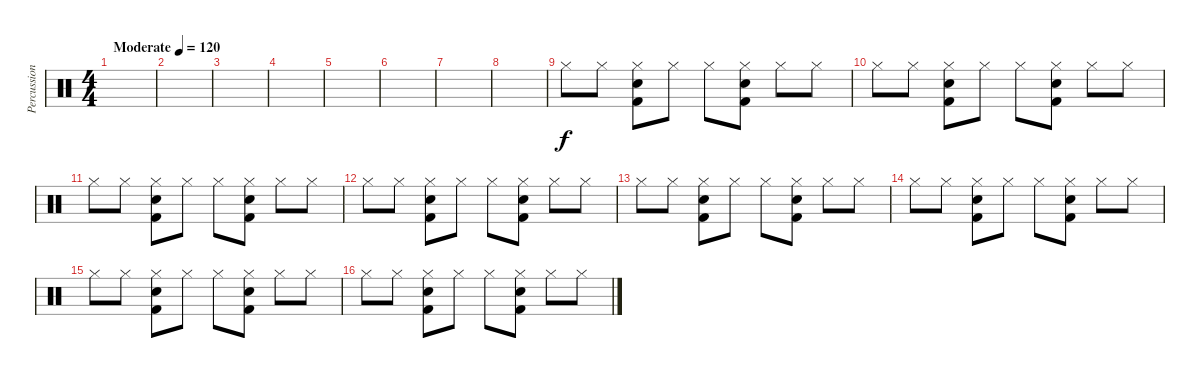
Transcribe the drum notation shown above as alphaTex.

\track ("Percussion" "Percussion") {instrument percussion}
\staff {score}
\articulation defaults
\ts (4 4)
\tempo (120 "Moderate")
\clef neutral
\ks c
|
|
|
|
|
|
|
|
"Hi-Hat (closed)".8 "Hi-Hat (closed)".8 ("Hi-Hat (closed)" "Snare (hit) 2" "Kick (hit) 2").8 "Hi-Hat (closed)".8 "Hi-Hat (closed)".8 ("Hi-Hat (closed)" "Snare (hit) 2" "Kick (hit) 2").8 "Hi-Hat (closed)".8 "Hi-Hat (closed)".8 |
"Hi-Hat (closed)".8 "Hi-Hat (closed)".8 ("Hi-Hat (closed)" "Snare (hit) 2" "Kick (hit) 2").8 "Hi-Hat (closed)".8 "Hi-Hat (closed)".8 ("Hi-Hat (closed)" "Snare (hit) 2" "Kick (hit) 2").8 "Hi-Hat (closed)".8 "Hi-Hat (closed)".8 |
"Hi-Hat (closed)".8 "Hi-Hat (closed)".8 ("Hi-Hat (closed)" "Snare (hit) 2" "Kick (hit) 2").8 "Hi-Hat (closed)".8 "Hi-Hat (closed)".8 ("Hi-Hat (closed)" "Snare (hit) 2" "Kick (hit) 2").8 "Hi-Hat (closed)".8 "Hi-Hat (closed)".8 |
"Hi-Hat (closed)".8 "Hi-Hat (closed)".8 ("Hi-Hat (closed)" "Snare (hit) 2" "Kick (hit) 2").8 "Hi-Hat (closed)".8 "Hi-Hat (closed)".8 ("Hi-Hat (closed)" "Snare (hit) 2" "Kick (hit) 2").8 "Hi-Hat (closed)".8 "Hi-Hat (closed)".8 |
"Hi-Hat (closed)".8 "Hi-Hat (closed)".8 ("Hi-Hat (closed)" "Snare (hit) 2" "Kick (hit) 2").8 "Hi-Hat (closed)".8 "Hi-Hat (closed)".8 ("Hi-Hat (closed)" "Snare (hit) 2" "Kick (hit) 2").8 "Hi-Hat (closed)".8 "Hi-Hat (closed)".8 |
"Hi-Hat (closed)".8 "Hi-Hat (closed)".8 ("Hi-Hat (closed)" "Snare (hit) 2" "Kick (hit) 2").8 "Hi-Hat (closed)".8 "Hi-Hat (closed)".8 ("Hi-Hat (closed)" "Snare (hit) 2" "Kick (hit) 2").8 "Hi-Hat (closed)".8 "Hi-Hat (closed)".8 |
"Hi-Hat (closed)".8 "Hi-Hat (closed)".8 ("Hi-Hat (closed)" "Snare (hit) 2" "Kick (hit) 2").8 "Hi-Hat (closed)".8 "Hi-Hat (closed)".8 ("Hi-Hat (closed)" "Snare (hit) 2" "Kick (hit) 2").8 "Hi-Hat (closed)".8 "Hi-Hat (closed)".8 |
"Hi-Hat (closed)".8 "Hi-Hat (closed)".8 ("Hi-Hat (closed)" "Snare (hit) 2" "Kick (hit) 2").8 "Hi-Hat (closed)".8 "Hi-Hat (closed)".8 ("Hi-Hat (closed)" "Snare (hit) 2" "Kick (hit) 2").8 "Hi-Hat (closed)".8 "Hi-Hat (closed)".8
